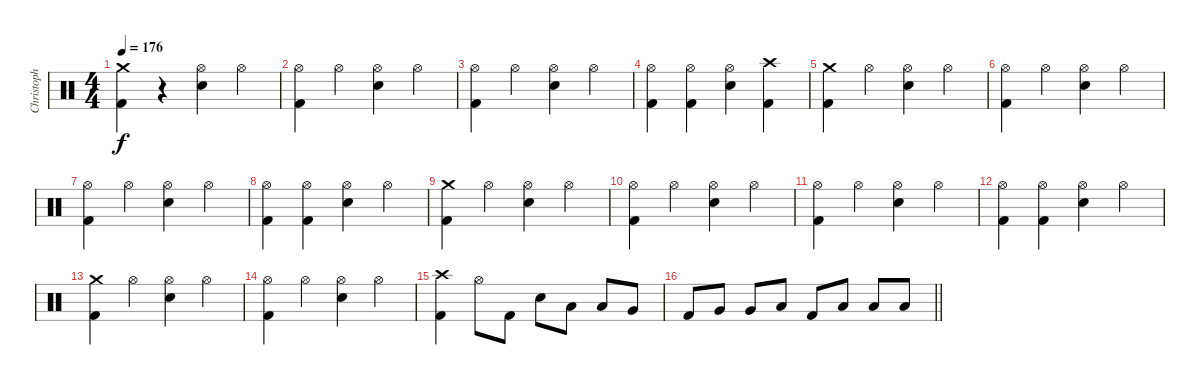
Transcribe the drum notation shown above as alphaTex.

\track ("Christoph" "Christoph") {instrument percussion}
\staff {score}
\articulation defaults
\ts (4 4)
\tempo 176
\clef neutral
\ks c
("Crash medium (hit)" "Kick (hit) 2").4{dy f} r.4 ("Hi-Hat (open)" "Snare (hit) 2").4 "Hi-Hat (open)".4 |
("Hi-Hat (open)" "Kick (hit) 2").4 "Hi-Hat (open)".4 ("Hi-Hat (open)" "Snare (hit) 2").4 "Hi-Hat (open)".4 |
("Hi-Hat (open)" "Kick (hit) 2").4 "Hi-Hat (open)".4 ("Hi-Hat (open)" "Snare (hit) 2").4 "Hi-Hat (open)".4 |
("Hi-Hat (open)" "Kick (hit) 2").4 ("Hi-Hat (open)" "Kick (hit) 2").4 ("Hi-Hat (open)" "Snare (hit) 2").4 ("Crash high (hit)" "Kick (hit) 2").4 |
("Crash medium (hit)" "Kick (hit) 2").4 "Hi-Hat (open)".4 ("Hi-Hat (open)" "Snare (hit) 2").4 "Hi-Hat (open)".4 |
("Hi-Hat (open)" "Kick (hit) 2").4 "Hi-Hat (open)".4 ("Hi-Hat (open)" "Snare (hit) 2").4 "Hi-Hat (open)".4 |
("Hi-Hat (open)" "Kick (hit) 2").4 "Hi-Hat (open)".4 ("Hi-Hat (open)" "Snare (hit) 2").4 "Hi-Hat (open)".4 |
("Hi-Hat (open)" "Kick (hit) 2").4 ("Hi-Hat (open)" "Kick (hit) 2").4 ("Hi-Hat (open)" "Snare (hit) 2").4 "Hi-Hat (open)".4 |
("Crash medium (hit)" "Kick (hit) 2").4 "Hi-Hat (open)".4 ("Hi-Hat (open)" "Snare (hit) 2").4 "Hi-Hat (open)".4 |
("Hi-Hat (open)" "Kick (hit) 2").4 "Hi-Hat (open)".4 ("Hi-Hat (open)" "Snare (hit) 2").4 "Hi-Hat (open)".4 |
("Hi-Hat (open)" "Kick (hit) 2").4 "Hi-Hat (open)".4 ("Hi-Hat (open)" "Snare (hit) 2").4 "Hi-Hat (open)".4 |
("Hi-Hat (open)" "Kick (hit) 2").4 ("Hi-Hat (open)" "Kick (hit) 2").4 ("Hi-Hat (open)" "Snare (hit) 2").4 "Hi-Hat (open)".4 |
("Crash medium (hit)" "Kick (hit) 2").4 "Hi-Hat (open)".4 ("Hi-Hat (open)" "Snare (hit) 2").4 "Hi-Hat (open)".4 |
("Hi-Hat (open)" "Kick (hit) 2").4 "Hi-Hat (open)".4 ("Hi-Hat (open)" "Snare (hit) 2").4 "Hi-Hat (open)".4 |
("Crash high (hit)" "Kick (hit) 2").4 "Hi-Hat (open)".8 "Kick (hit) 2".8 "Snare (hit) 2".8 "Low Tom (hit)".8 "Low Tom (hit)".8 "Very Low Tom (hit)".8 |
\barLineRight lightlight "Kick (hit) 2".8 "Very Low Tom (hit)".8 "Very Low Tom (hit)".8 "Low Floor Tom (hit)".8 "Kick (hit) 2".8 "Low Floor Tom (hit)".8 "Low Floor Tom (hit)".8 "Low Floor Tom (hit)".8
